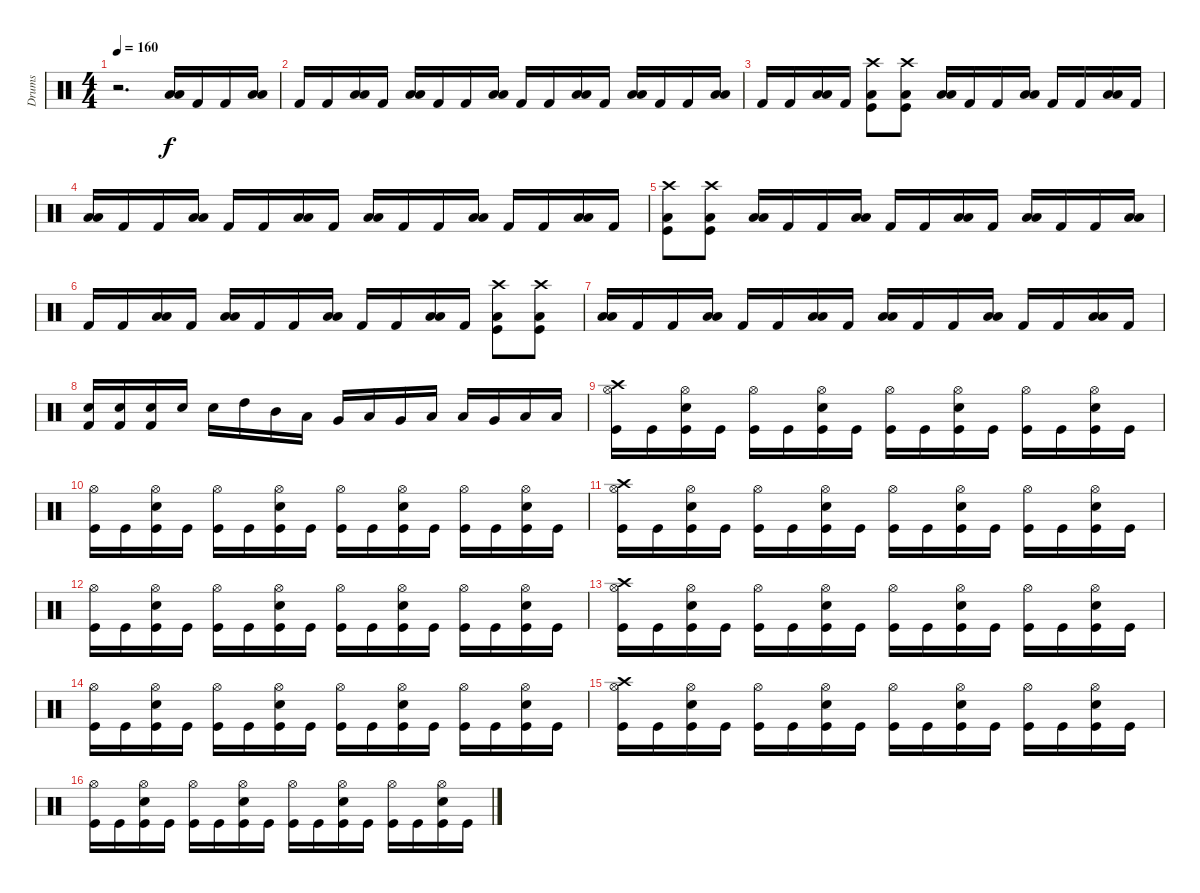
\track ("Drums" "Drums") {instrument percussion}
\staff {score}
\articulation defaults
\ts (4 4)
\tempo 160
\clef neutral
\ks c
r.2{d dy f} ("Low Tom (hit)" "Low Floor Tom (hit)").16 "Kick (hit) 2".16 "Kick (hit) 2".16 ("Low Tom (hit)" "Low Floor Tom (hit)").16 |
"Kick (hit) 2".16 "Kick (hit) 2".16 ("Low Tom (hit)" "Low Floor Tom (hit)").16 "Kick (hit) 2".16 ("Low Tom (hit)" "Low Floor Tom (hit)").16 "Kick (hit) 2".16 "Kick (hit) 2".16 ("Low Tom (hit)" "Low Floor Tom (hit)").16 "Kick (hit) 2".16 "Kick (hit) 2".16 ("Low Tom (hit)" "Low Floor Tom (hit)").16 "Kick (hit) 2".16 ("Low Tom (hit)" "Low Floor Tom (hit)").16 "Kick (hit) 2".16 "Kick (hit) 2".16 ("Low Tom (hit)" "Low Floor Tom (hit)").16 |
"Kick (hit) 2".16 "Kick (hit) 2".16 ("Low Tom (hit)" "Low Floor Tom (hit)").16 "Kick (hit) 2".16 ("Low Floor Tom (hit)" "Kick (hit)" "Crash high (hit)").8 ("Low Floor Tom (hit)" "Kick (hit)" "Crash high (hit)").8 ("Low Tom (hit)" "Low Floor Tom (hit)").16 "Kick (hit) 2".16 "Kick (hit) 2".16 ("Low Tom (hit)" "Low Floor Tom (hit)").16 "Kick (hit) 2".16 "Kick (hit) 2".16 ("Low Tom (hit)" "Low Floor Tom (hit)").16 "Kick (hit) 2".16 |
("Low Tom (hit)" "Low Floor Tom (hit)").16 "Kick (hit) 2".16 "Kick (hit) 2".16 ("Low Tom (hit)" "Low Floor Tom (hit)").16 "Kick (hit) 2".16 "Kick (hit) 2".16 ("Low Tom (hit)" "Low Floor Tom (hit)").16 "Kick (hit) 2".16 ("Low Tom (hit)" "Low Floor Tom (hit)").16 "Kick (hit) 2".16 "Kick (hit) 2".16 ("Low Tom (hit)" "Low Floor Tom (hit)").16 "Kick (hit) 2".16 "Kick (hit) 2".16 ("Low Tom (hit)" "Low Floor Tom (hit)").16 "Kick (hit) 2".16 |
("Low Floor Tom (hit)" "Kick (hit)" "Crash high (hit)").8 ("Low Floor Tom (hit)" "Kick (hit)" "Crash high (hit)").8 ("Low Tom (hit)" "Low Floor Tom (hit)").16 "Kick (hit) 2".16 "Kick (hit) 2".16 ("Low Tom (hit)" "Low Floor Tom (hit)").16 "Kick (hit) 2".16 "Kick (hit) 2".16 ("Low Tom (hit)" "Low Floor Tom (hit)").16 "Kick (hit) 2".16 ("Low Tom (hit)" "Low Floor Tom (hit)").16 "Kick (hit) 2".16 "Kick (hit) 2".16 ("Low Tom (hit)" "Low Floor Tom (hit)").16 |
"Kick (hit) 2".16 "Kick (hit) 2".16 ("Low Tom (hit)" "Low Floor Tom (hit)").16 "Kick (hit) 2".16 ("Low Tom (hit)" "Low Floor Tom (hit)").16 "Kick (hit) 2".16 "Kick (hit) 2".16 ("Low Tom (hit)" "Low Floor Tom (hit)").16 "Kick (hit) 2".16 "Kick (hit) 2".16 ("Low Tom (hit)" "Low Floor Tom (hit)").16 "Kick (hit) 2".16 ("Low Floor Tom (hit)" "Kick (hit)" "Crash high (hit)").8 ("Low Floor Tom (hit)" "Kick (hit)" "Crash high (hit)").8 |
("Low Tom (hit)" "Low Floor Tom (hit)").16 "Kick (hit) 2".16 "Kick (hit) 2".16 ("Low Tom (hit)" "Low Floor Tom (hit)").16 "Kick (hit) 2".16 "Kick (hit) 2".16 ("Low Tom (hit)" "Low Floor Tom (hit)").16 "Kick (hit) 2".16 ("Low Tom (hit)" "Low Floor Tom (hit)").16 "Kick (hit) 2".16 "Kick (hit) 2".16 ("Low Tom (hit)" "Low Floor Tom (hit)").16 "Kick (hit) 2".16 "Kick (hit) 2".16 ("Low Tom (hit)" "Low Floor Tom (hit)").16 "Kick (hit) 2".16 |
("Snare (hit) 2" "Kick (hit) 2").16 ("Electric Snare (hit)" "Kick (hit) 2").16 ("Electric Snare (hit)" "Kick (hit) 2").16 "Snare (hit) 2".16 "Snare (hit) 2".16 "High Tom (hit)".16 "Mid Tom (hit)".16 "Low Tom (hit)".16 "Very Low Tom (hit)".16 "Low Tom (hit)".16 "Very Low Tom (hit)".16 "Low Floor Tom (hit)".16 "Low Tom (hit)".16 "Very Low Tom (hit)".16 "Low Floor Tom (hit)".16 "Low Floor Tom (hit)".16 |
("Crash high (hit)" "Hi-Hat (open)" "Kick (hit)").16 "Kick (hit)".16 ("Hi-Hat (open)" "Electric Snare (hit)" "Kick (hit)").16 "Kick (hit)".16 ("Hi-Hat (open)" "Kick (hit)").16 "Kick (hit)".16 ("Hi-Hat (open)" "Electric Snare (hit)" "Kick (hit)").16 "Kick (hit)".16 ("Hi-Hat (open)" "Kick (hit)").16 "Kick (hit)".16 ("Hi-Hat (open)" "Electric Snare (hit)" "Kick (hit)").16 "Kick (hit)".16 ("Hi-Hat (open)" "Kick (hit)").16 "Kick (hit)".16 ("Hi-Hat (open)" "Electric Snare (hit)" "Kick (hit)").16 "Kick (hit)".16 |
("Hi-Hat (open)" "Kick (hit)").16 "Kick (hit)".16 ("Hi-Hat (open)" "Electric Snare (hit)" "Kick (hit)").16 "Kick (hit)".16 ("Hi-Hat (open)" "Kick (hit)").16 "Kick (hit)".16 ("Hi-Hat (open)" "Electric Snare (hit)" "Kick (hit)").16 "Kick (hit)".16 ("Hi-Hat (open)" "Kick (hit)").16 "Kick (hit)".16 ("Hi-Hat (open)" "Electric Snare (hit)" "Kick (hit)").16 "Kick (hit)".16 ("Hi-Hat (open)" "Kick (hit)").16 "Kick (hit)".16 ("Hi-Hat (open)" "Electric Snare (hit)" "Kick (hit)").16 "Kick (hit)".16 |
("Crash high (hit)" "Hi-Hat (open)" "Kick (hit)").16 "Kick (hit)".16 ("Hi-Hat (open)" "Electric Snare (hit)" "Kick (hit)").16 "Kick (hit)".16 ("Hi-Hat (open)" "Kick (hit)").16 "Kick (hit)".16 ("Hi-Hat (open)" "Electric Snare (hit)" "Kick (hit)").16 "Kick (hit)".16 ("Hi-Hat (open)" "Kick (hit)").16 "Kick (hit)".16 ("Hi-Hat (open)" "Electric Snare (hit)" "Kick (hit)").16 "Kick (hit)".16 ("Hi-Hat (open)" "Kick (hit)").16 "Kick (hit)".16 ("Hi-Hat (open)" "Electric Snare (hit)" "Kick (hit)").16 "Kick (hit)".16 |
("Hi-Hat (open)" "Kick (hit)").16 "Kick (hit)".16 ("Hi-Hat (open)" "Electric Snare (hit)" "Kick (hit)").16 "Kick (hit)".16 ("Hi-Hat (open)" "Kick (hit)").16 "Kick (hit)".16 ("Hi-Hat (open)" "Electric Snare (hit)" "Kick (hit)").16 "Kick (hit)".16 ("Hi-Hat (open)" "Kick (hit)").16 "Kick (hit)".16 ("Hi-Hat (open)" "Electric Snare (hit)" "Kick (hit)").16 "Kick (hit)".16 ("Hi-Hat (open)" "Kick (hit)").16 "Kick (hit)".16 ("Hi-Hat (open)" "Electric Snare (hit)" "Kick (hit)").16 "Kick (hit)".16 |
("Crash high (hit)" "Hi-Hat (open)" "Kick (hit)").16 "Kick (hit)".16 ("Hi-Hat (open)" "Electric Snare (hit)" "Kick (hit)").16 "Kick (hit)".16 ("Hi-Hat (open)" "Kick (hit)").16 "Kick (hit)".16 ("Hi-Hat (open)" "Electric Snare (hit)" "Kick (hit)").16 "Kick (hit)".16 ("Hi-Hat (open)" "Kick (hit)").16 "Kick (hit)".16 ("Hi-Hat (open)" "Electric Snare (hit)" "Kick (hit)").16 "Kick (hit)".16 ("Hi-Hat (open)" "Kick (hit)").16 "Kick (hit)".16 ("Hi-Hat (open)" "Electric Snare (hit)" "Kick (hit)").16 "Kick (hit)".16 |
("Hi-Hat (open)" "Kick (hit)").16 "Kick (hit)".16 ("Hi-Hat (open)" "Electric Snare (hit)" "Kick (hit)").16 "Kick (hit)".16 ("Hi-Hat (open)" "Kick (hit)").16 "Kick (hit)".16 ("Hi-Hat (open)" "Electric Snare (hit)" "Kick (hit)").16 "Kick (hit)".16 ("Hi-Hat (open)" "Kick (hit)").16 "Kick (hit)".16 ("Hi-Hat (open)" "Electric Snare (hit)" "Kick (hit)").16 "Kick (hit)".16 ("Hi-Hat (open)" "Kick (hit)").16 "Kick (hit)".16 ("Hi-Hat (open)" "Electric Snare (hit)" "Kick (hit)").16 "Kick (hit)".16 |
("Crash high (hit)" "Hi-Hat (open)" "Kick (hit)").16 "Kick (hit)".16 ("Hi-Hat (open)" "Electric Snare (hit)" "Kick (hit)").16 "Kick (hit)".16 ("Hi-Hat (open)" "Kick (hit)").16 "Kick (hit)".16 ("Hi-Hat (open)" "Electric Snare (hit)" "Kick (hit)").16 "Kick (hit)".16 ("Hi-Hat (open)" "Kick (hit)").16 "Kick (hit)".16 ("Hi-Hat (open)" "Electric Snare (hit)" "Kick (hit)").16 "Kick (hit)".16 ("Hi-Hat (open)" "Kick (hit)").16 "Kick (hit)".16 ("Hi-Hat (open)" "Electric Snare (hit)" "Kick (hit)").16 "Kick (hit)".16 |
("Hi-Hat (open)" "Kick (hit)").16 "Kick (hit)".16 ("Hi-Hat (open)" "Electric Snare (hit)" "Kick (hit)").16 "Kick (hit)".16 ("Hi-Hat (open)" "Kick (hit)").16 "Kick (hit)".16 ("Hi-Hat (open)" "Electric Snare (hit)" "Kick (hit)").16 "Kick (hit)".16 ("Hi-Hat (open)" "Kick (hit)").16 "Kick (hit)".16 ("Hi-Hat (open)" "Electric Snare (hit)" "Kick (hit)").16 "Kick (hit)".16 ("Hi-Hat (open)" "Kick (hit)").16 "Kick (hit)".16 ("Hi-Hat (open)" "Electric Snare (hit)" "Kick (hit)").16 "Kick (hit)".16
